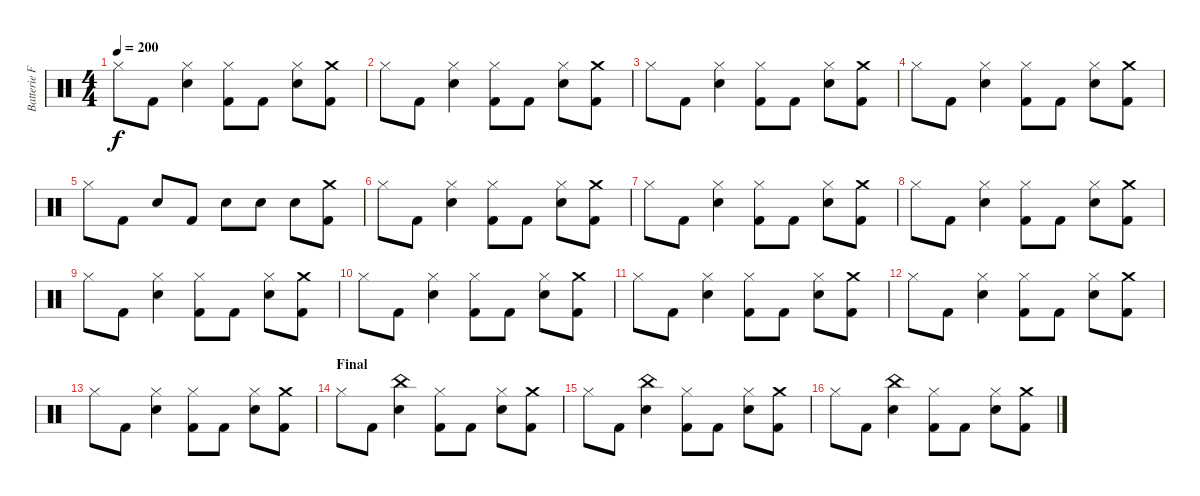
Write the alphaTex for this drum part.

\track ("Batterie Franck" "Batterie F") {instrument percussion}
\staff {score}
\articulation defaults
\ts (4 4)
\tempo 200
\clef neutral
\ks c "Hi-Hat (closed)".8{dy f} "Kick (hit) 2".8
("Hi-Hat (closed)" "Snare (hit) 2").4 ("Hi-Hat (closed)" "Kick (hit) 2").8 "Kick (hit) 2".8 ("Hi-Hat (closed)" "Snare (hit) 2").8 ("Crash medium (hit)" "Kick (hit) 2").8 |
"Hi-Hat (closed)".8 "Kick (hit) 2".8 ("Hi-Hat (closed)" "Snare (hit) 2").4 ("Hi-Hat (closed)" "Kick (hit) 2").8 "Kick (hit) 2".8 ("Hi-Hat (closed)" "Snare (hit) 2").8 ("Crash medium (hit)" "Kick (hit) 2").8 |
"Hi-Hat (closed)".8 "Kick (hit) 2".8 ("Hi-Hat (closed)" "Snare (hit) 2").4 ("Hi-Hat (closed)" "Kick (hit) 2").8 "Kick (hit) 2".8 ("Hi-Hat (closed)" "Snare (hit) 2").8 ("Crash medium (hit)" "Kick (hit) 2").8 |
"Hi-Hat (closed)".8 "Kick (hit) 2".8 ("Hi-Hat (closed)" "Snare (hit) 2").4 ("Hi-Hat (closed)" "Kick (hit) 2").8 "Kick (hit) 2".8 ("Hi-Hat (closed)" "Snare (hit) 2").8 ("Crash medium (hit)" "Kick (hit) 2").8 |
"Hi-Hat (closed)".8 "Kick (hit) 2".8 "Snare (hit) 2".8 "Kick (hit) 2".8 "Snare (hit) 2".8 "Snare (hit) 2".8 "Snare (hit) 2".8 ("Crash medium (hit)" "Kick (hit) 2").8 |
"Hi-Hat (closed)".8 "Kick (hit) 2".8 ("Hi-Hat (closed)" "Snare (hit) 2").4 ("Hi-Hat (closed)" "Kick (hit) 2").8 "Kick (hit) 2".8 ("Hi-Hat (closed)" "Snare (hit) 2").8 ("Crash medium (hit)" "Kick (hit) 2").8 |
"Hi-Hat (closed)".8 "Kick (hit) 2".8 ("Hi-Hat (closed)" "Snare (hit) 2").4 ("Hi-Hat (closed)" "Kick (hit) 2").8 "Kick (hit) 2".8 ("Hi-Hat (closed)" "Snare (hit) 2").8 ("Crash medium (hit)" "Kick (hit) 2").8 |
"Hi-Hat (closed)".8 "Kick (hit) 2".8 ("Hi-Hat (closed)" "Snare (hit) 2").4 ("Hi-Hat (closed)" "Kick (hit) 2").8 "Kick (hit) 2".8 ("Hi-Hat (closed)" "Snare (hit) 2").8 ("Crash medium (hit)" "Kick (hit) 2").8 |
"Hi-Hat (closed)".8 "Kick (hit) 2".8 ("Hi-Hat (closed)" "Snare (hit) 2").4 ("Hi-Hat (closed)" "Kick (hit) 2").8 "Kick (hit) 2".8 ("Hi-Hat (closed)" "Snare (hit) 2").8 ("Crash medium (hit)" "Kick (hit) 2").8 |
"Hi-Hat (closed)".8 "Kick (hit) 2".8 ("Hi-Hat (closed)" "Snare (hit) 2").4 ("Hi-Hat (closed)" "Kick (hit) 2").8 "Kick (hit) 2".8 ("Hi-Hat (closed)" "Snare (hit) 2").8 ("Crash medium (hit)" "Kick (hit) 2").8 |
"Hi-Hat (closed)".8 "Kick (hit) 2".8 ("Hi-Hat (closed)" "Snare (hit) 2").4 ("Hi-Hat (closed)" "Kick (hit) 2").8 "Kick (hit) 2".8 ("Hi-Hat (closed)" "Snare (hit) 2").8 ("Crash medium (hit)" "Kick (hit) 2").8 |
"Hi-Hat (closed)".8 "Kick (hit) 2".8 ("Hi-Hat (closed)" "Snare (hit) 2").4 ("Hi-Hat (closed)" "Kick (hit) 2").8 "Kick (hit) 2".8 ("Hi-Hat (closed)" "Snare (hit) 2").8 ("Crash medium (hit)" "Kick (hit) 2").8 |
"Hi-Hat (closed)".8 "Kick (hit) 2".8 ("Hi-Hat (closed)" "Snare (hit) 2").4 ("Hi-Hat (closed)" "Kick (hit) 2").8 "Kick (hit) 2".8 ("Hi-Hat (closed)" "Snare (hit) 2").8 ("Crash medium (hit)" "Kick (hit) 2").8 |
\section ("" "Final")
"Hi-Hat (closed)".8 "Kick (hit) 2".8 ("China (hit)" "Snare (hit) 2").4 ("Hi-Hat (closed)" "Kick (hit) 2").8 "Kick (hit) 2".8 ("Hi-Hat (closed)" "Snare (hit) 2").8 ("Crash medium (hit)" "Kick (hit) 2").8 |
"Hi-Hat (closed)".8 "Kick (hit) 2".8 ("China (hit)" "Snare (hit) 2").4 ("Hi-Hat (closed)" "Kick (hit) 2").8 "Kick (hit) 2".8 ("Hi-Hat (closed)" "Snare (hit) 2").8 ("Crash medium (hit)" "Kick (hit) 2").8 |
"Hi-Hat (closed)".8 "Kick (hit) 2".8 ("China (hit)" "Snare (hit) 2").4 ("Hi-Hat (closed)" "Kick (hit) 2").8 "Kick (hit) 2".8 ("Hi-Hat (closed)" "Snare (hit) 2").8 ("Crash medium (hit)" "Kick (hit) 2").8
